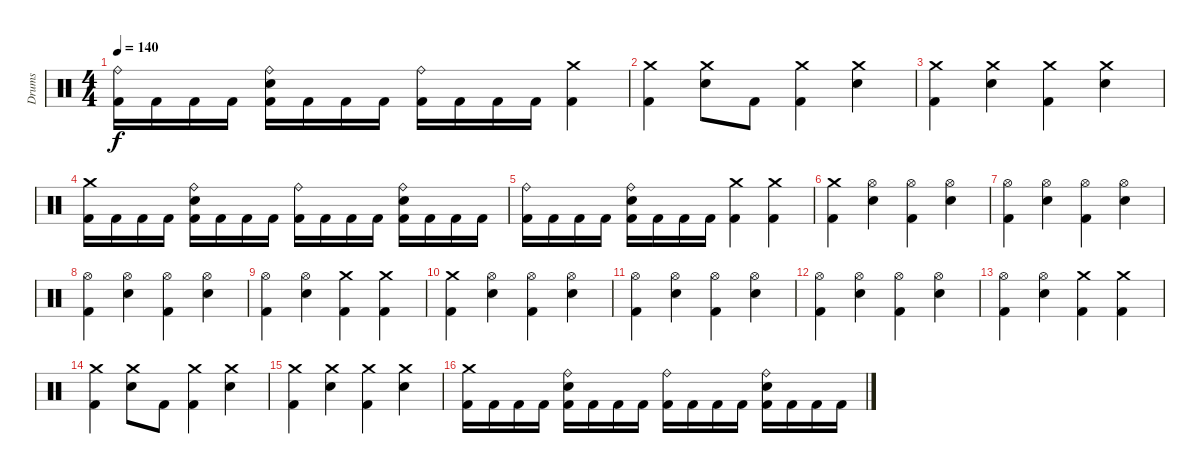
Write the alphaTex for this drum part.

\track ("Drums" "Drums") {instrument percussion}
\staff
\articulation defaults
\ts (4 4)
\tempo 140
\clef neutral
\ks c
("Ride (bell)" "Kick (hit) 2").16{dy f} "Kick (hit) 2".16 "Kick (hit) 2".16 "Kick (hit) 2".16 ("Ride (bell)" "Electric Snare (hit)" "Kick (hit) 2").16 "Kick (hit) 2".16 "Kick (hit) 2".16 "Kick (hit) 2".16 ("Ride (bell)" "Kick (hit) 2").16 "Kick (hit) 2".16 "Kick (hit) 2".16 "Kick (hit) 2".16 ("Crash medium (hit)" "Kick (hit) 2").4 |
("Crash medium (hit)" "Kick (hit) 2").4 ("Crash medium (hit)" "Electric Snare (hit)").8 "Kick (hit) 2".8 ("Crash medium (hit)" "Kick (hit) 2").4 ("Crash medium (hit)" "Electric Snare (hit)").4 |
("Crash medium (hit)" "Kick (hit) 2").4 ("Crash medium (hit)" "Electric Snare (hit)").4 ("Crash medium (hit)" "Kick (hit) 2").4 ("Crash medium (hit)" "Electric Snare (hit)").4 |
("Crash medium (hit)" "Kick (hit) 2").16 "Kick (hit) 2".16 "Kick (hit) 2".16 "Kick (hit) 2".16 ("Ride (bell)" "Electric Snare (hit)" "Kick (hit) 2").16 "Kick (hit) 2".16 "Kick (hit) 2".16 "Kick (hit) 2".16 ("Ride (bell)" "Kick (hit) 2").16 "Kick (hit) 2".16 "Kick (hit) 2".16 "Kick (hit) 2".16 ("Ride (bell)" "Electric Snare (hit)" "Kick (hit) 2").16 "Kick (hit) 2".16 "Kick (hit) 2".16 "Kick (hit) 2".16 |
("Ride (bell)" "Kick (hit) 2").16 "Kick (hit) 2".16 "Kick (hit) 2".16 "Kick (hit) 2".16 ("Ride (bell)" "Electric Snare (hit)" "Kick (hit) 2").16 "Kick (hit) 2".16 "Kick (hit) 2".16 "Kick (hit) 2".16 ("Crash medium (hit)" "Kick (hit) 2").4 ("Crash medium (hit)" "Kick (hit) 2").4 |
("Crash medium (hit)" "Kick (hit) 2").4 ("Hi-Hat (open)" "Electric Snare (hit)").4 ("Hi-Hat (open)" "Kick (hit) 2").4 ("Hi-Hat (open)" "Electric Snare (hit)").4 |
("Hi-Hat (open)" "Kick (hit) 2").4 ("Hi-Hat (open)" "Electric Snare (hit)").4 ("Hi-Hat (open)" "Kick (hit) 2").4 ("Hi-Hat (open)" "Electric Snare (hit)").4 |
("Hi-Hat (open)" "Kick (hit) 2").4 ("Hi-Hat (open)" "Electric Snare (hit)").4 ("Hi-Hat (open)" "Kick (hit) 2").4 ("Hi-Hat (open)" "Electric Snare (hit)").4 |
("Hi-Hat (open)" "Kick (hit) 2").4 ("Hi-Hat (open)" "Electric Snare (hit)").4 ("Crash medium (hit)" "Kick (hit) 2").4 ("Crash medium (hit)" "Kick (hit) 2").4 |
("Crash medium (hit)" "Kick (hit) 2").4 ("Hi-Hat (open)" "Electric Snare (hit)").4 ("Hi-Hat (open)" "Kick (hit) 2").4 ("Hi-Hat (open)" "Electric Snare (hit)").4 |
("Hi-Hat (open)" "Kick (hit) 2").4 ("Hi-Hat (open)" "Electric Snare (hit)").4 ("Hi-Hat (open)" "Kick (hit) 2").4 ("Hi-Hat (open)" "Electric Snare (hit)").4 |
("Hi-Hat (open)" "Kick (hit) 2").4 ("Hi-Hat (open)" "Electric Snare (hit)").4 ("Hi-Hat (open)" "Kick (hit) 2").4 ("Hi-Hat (open)" "Electric Snare (hit)").4 |
("Hi-Hat (open)" "Kick (hit) 2").4 ("Hi-Hat (open)" "Electric Snare (hit)").4 ("Crash medium (hit)" "Kick (hit) 2").4 ("Crash medium (hit)" "Kick (hit) 2").4 |
("Crash medium (hit)" "Kick (hit) 2").4 ("Crash medium (hit)" "Electric Snare (hit)").8 "Kick (hit) 2".8 ("Crash medium (hit)" "Kick (hit) 2").4 ("Crash medium (hit)" "Electric Snare (hit)").4 |
("Crash medium (hit)" "Kick (hit) 2").4 ("Crash medium (hit)" "Electric Snare (hit)").4 ("Crash medium (hit)" "Kick (hit) 2").4 ("Crash medium (hit)" "Electric Snare (hit)").4 |
("Crash medium (hit)" "Kick (hit) 2").16 "Kick (hit) 2".16 "Kick (hit) 2".16 "Kick (hit) 2".16 ("Ride (bell)" "Electric Snare (hit)" "Kick (hit) 2").16 "Kick (hit) 2".16 "Kick (hit) 2".16 "Kick (hit) 2".16 ("Ride (bell)" "Kick (hit) 2").16 "Kick (hit) 2".16 "Kick (hit) 2".16 "Kick (hit) 2".16 ("Ride (bell)" "Electric Snare (hit)" "Kick (hit) 2").16 "Kick (hit) 2".16 "Kick (hit) 2".16 "Kick (hit) 2".16
